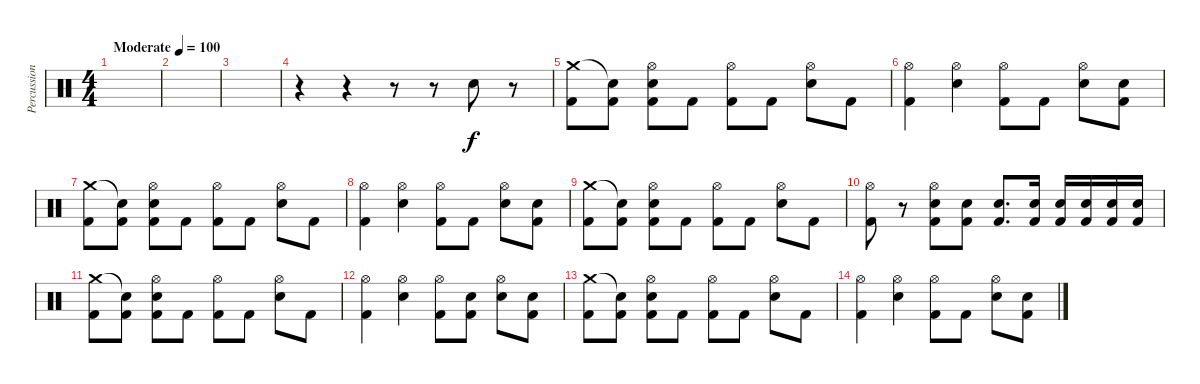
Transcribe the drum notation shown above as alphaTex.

\track ("Percussion" "Percussion") {instrument percussion}
\staff {score}
\articulation defaults
\ts (4 4)
\tempo (100 "Moderate")
\clef neutral
\ks c
|
|
|
r.4 r.4 r.8 r.8 "Electric Snare (hit)".8 r.8 |
("Crash medium (hit)" "Kick (hit) 2").8 ("Snare (hit)"{t} "Kick (hit) 2").8 ("Hi-Hat (open)" "Electric Snare (hit)" "Kick (hit) 2").8 "Kick (hit) 2".8 ("Hi-Hat (open)" "Kick (hit) 2").8 "Kick (hit) 2".8 ("Hi-Hat (open)" "Electric Snare (hit)").8 "Kick (hit) 2".8 |
("Hi-Hat (open)" "Kick (hit) 2").4 ("Hi-Hat (open)" "Electric Snare (hit)").4 ("Hi-Hat (open)" "Kick (hit) 2").8 "Kick (hit) 2".8 ("Hi-Hat (open)" "Electric Snare (hit)").8 ("Electric Snare (hit)" "Kick (hit) 2").8 |
("Crash medium (hit)" "Kick (hit) 2").8 ("Snare (hit)"{t} "Kick (hit) 2").8 ("Hi-Hat (open)" "Electric Snare (hit)" "Kick (hit) 2").8 "Kick (hit) 2".8 ("Hi-Hat (open)" "Kick (hit) 2").8 "Kick (hit) 2".8 ("Hi-Hat (open)" "Electric Snare (hit)").8 "Kick (hit) 2".8 |
("Hi-Hat (open)" "Kick (hit) 2").4 ("Hi-Hat (open)" "Electric Snare (hit)").4 ("Hi-Hat (open)" "Kick (hit) 2").8 "Kick (hit) 2".8 ("Hi-Hat (open)" "Electric Snare (hit)").8 ("Electric Snare (hit)" "Kick (hit) 2").8 |
("Crash medium (hit)" "Kick (hit) 2").8 ("Snare (hit)"{t} "Kick (hit) 2").8 ("Hi-Hat (open)" "Electric Snare (hit)" "Kick (hit) 2").8 "Kick (hit) 2".8 ("Hi-Hat (open)" "Kick (hit) 2").8 "Kick (hit) 2".8 ("Hi-Hat (open)" "Electric Snare (hit)").8 "Kick (hit) 2".8 |
("Hi-Hat (open)" "Kick (hit) 2").8 r.8 ("Hi-Hat (open)" "Electric Snare (hit)" "Kick (hit) 2").8 ("Electric Snare (hit)" "Kick (hit) 2").8 ("Electric Snare (hit)" "Kick (hit) 2").8{d} ("Electric Snare (hit)" "Kick (hit) 2").16 ("Electric Snare (hit)" "Kick (hit) 2").16 ("Electric Snare (hit)" "Kick (hit) 2").16 ("Electric Snare (hit)" "Kick (hit) 2").16 ("Electric Snare (hit)" "Kick (hit) 2").16 |
("Crash medium (hit)" "Kick (hit) 2").8 ("Snare (hit)"{t} "Kick (hit) 2").8 ("Hi-Hat (open)" "Electric Snare (hit)" "Kick (hit) 2").8 "Kick (hit) 2".8 ("Hi-Hat (open)" "Kick (hit) 2").8 "Kick (hit) 2".8 ("Hi-Hat (open)" "Electric Snare (hit)").8 "Kick (hit) 2".8 |
("Hi-Hat (open)" "Kick (hit) 2").4 ("Hi-Hat (open)" "Electric Snare (hit)").4 ("Hi-Hat (open)" "Kick (hit) 2").8 ("Electric Snare (hit)" "Kick (hit) 2").8 ("Hi-Hat (open)" "Electric Snare (hit)").8 ("Electric Snare (hit)" "Kick (hit) 2").8 |
("Crash medium (hit)" "Kick (hit) 2").8 ("Snare (hit)"{t} "Kick (hit) 2").8 ("Hi-Hat (open)" "Electric Snare (hit)" "Kick (hit) 2").8 "Kick (hit) 2".8 ("Hi-Hat (open)" "Kick (hit) 2").8 "Kick (hit) 2".8 ("Hi-Hat (open)" "Electric Snare (hit)").8 "Kick (hit) 2".8 |
("Hi-Hat (open)" "Kick (hit) 2").4 ("Hi-Hat (open)" "Electric Snare (hit)").4 ("Hi-Hat (open)" "Kick (hit) 2").8 "Kick (hit) 2".8 ("Hi-Hat (open)" "Electric Snare (hit)").8 ("Electric Snare (hit)" "Kick (hit) 2").8
